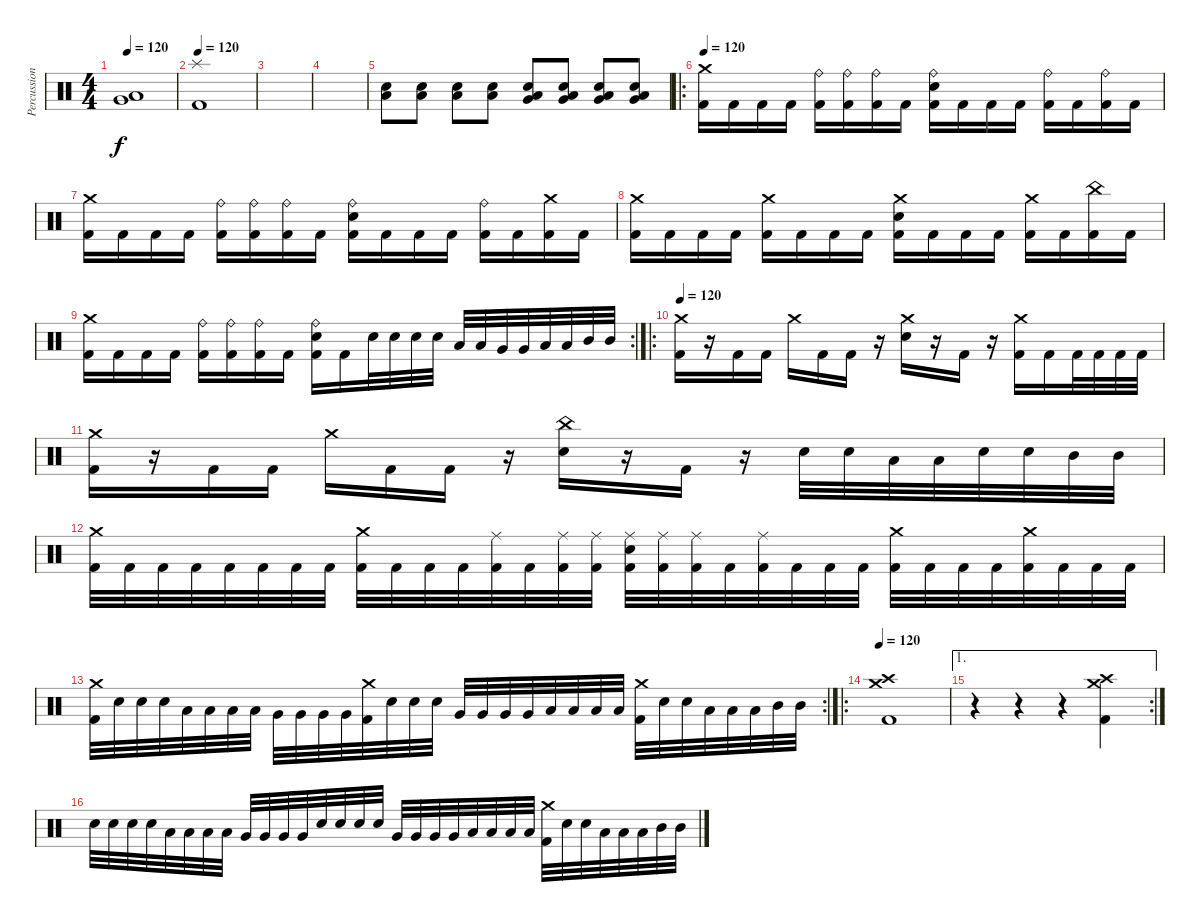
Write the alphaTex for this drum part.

\track ("Percussion" "Percussion") {instrument percussion}
\staff {score}
\articulation defaults
\ts (4 4)
\tempo 120
\clef neutral
\ks c
("Very Low Tom (hit)" "Low Floor Tom (hit)").1{dy f} |
\tempo 120
("Kick (hit) 2" "Splash (hit)").1 |
|
|
("Electric Snare (hit)" "Low Floor Tom (hit)").8 ("Electric Snare (hit)" "Low Floor Tom (hit)").8 ("Electric Snare (hit)" "Low Floor Tom (hit)").8 ("Electric Snare (hit)" "Low Floor Tom (hit)").8 ("Electric Snare (hit)" "Low Floor Tom (hit)" "Very Low Tom (hit)").8 ("Electric Snare (hit)" "Low Floor Tom (hit)" "Very Low Tom (hit)").8 ("Electric Snare (hit)" "Low Floor Tom (hit)" "Very Low Tom (hit)").8 ("Electric Snare (hit)" "Low Floor Tom (hit)" "Very Low Tom (hit)").8 |
\ro
\tempo 120
("Kick (hit) 2" "Crash medium (hit)").16 "Kick (hit) 2".16 "Kick (hit) 2".16 "Kick (hit) 2".16 ("Kick (hit) 2" "Ride (bell)").16 ("Kick (hit) 2" "Ride (bell)").16 ("Kick (hit) 2" "Ride (bell)").16 "Kick (hit) 2".16 ("Kick (hit) 2" "Electric Snare (hit)" "Ride (bell)").16 "Kick (hit) 2".16 "Kick (hit) 2".16 "Kick (hit) 2".16 ("Kick (hit) 2" "Ride (bell)").16 "Kick (hit) 2".16 ("Kick (hit) 2" "Ride (bell)").16 "Kick (hit) 2".16 |
("Kick (hit) 2" "Crash medium (hit)").16 "Kick (hit) 2".16 "Kick (hit) 2".16 "Kick (hit) 2".16 ("Kick (hit) 2" "Ride (bell)").16 ("Kick (hit) 2" "Ride (bell)").16 ("Kick (hit) 2" "Ride (bell)").16 "Kick (hit) 2".16 ("Kick (hit) 2" "Electric Snare (hit)" "Ride (bell)").16 "Kick (hit) 2".16 "Kick (hit) 2".16 "Kick (hit) 2".16 ("Kick (hit) 2" "Ride (bell)").16 "Kick (hit) 2".16 ("Kick (hit) 2" "Crash medium (hit)").16 "Kick (hit) 2".16 |
("Kick (hit) 2" "Crash medium (hit)").16 "Kick (hit) 2".16 "Kick (hit) 2".16 "Kick (hit) 2".16 ("Kick (hit) 2" "Crash medium (hit)").16 "Kick (hit) 2".16 "Kick (hit) 2".16 "Kick (hit) 2".16 ("Kick (hit) 2" "Electric Snare (hit)" "Crash medium (hit)").16 "Kick (hit) 2".16 "Kick (hit) 2".16 "Kick (hit) 2".16 ("Kick (hit) 2" "Crash medium (hit)").16 "Kick (hit) 2".16 ("Kick (hit) 2" "China (hit)").16 "Kick (hit) 2".16 |
\rc 2
("Kick (hit) 2" "Crash medium (hit)").16 "Kick (hit) 2".16 "Kick (hit) 2".16 "Kick (hit) 2".16 ("Kick (hit) 2" "Ride (bell)").16 ("Kick (hit) 2" "Ride (bell)").16 ("Kick (hit) 2" "Ride (bell)").16 "Kick (hit) 2".16 ("Kick (hit) 2" "Electric Snare (hit)" "Ride (bell)").16 "Kick (hit) 2".16 "Electric Snare (hit)".32 "Electric Snare (hit)".32 "Electric Snare (hit)".32 "Electric Snare (hit)".32 "Low Floor Tom (hit)".32 "Low Floor Tom (hit)".32 "Very Low Tom (hit)".32 "Very Low Tom (hit)".32 "Low Tom (hit)".32 "Low Tom (hit)".32 "Mid Tom (hit)".32 "Mid Tom (hit)".32 |
\ro
\tempo 120
("Kick (hit) 2" "Crash medium (hit)").16 r.16 "Kick (hit) 2".16 "Kick (hit) 2".16 "Crash medium (hit)".16 "Kick (hit) 2".16 "Kick (hit) 2".16 r.16 ("Electric Snare (hit)" "Crash medium (hit)").16 r.16 "Kick (hit) 2".16 r.16 ("Kick (hit) 2" "Crash medium (hit)").16 "Kick (hit) 2".16 "Kick (hit) 2".32 "Kick (hit) 2".32 "Kick (hit) 2".32 "Kick (hit) 2".32 |
("Kick (hit) 2" "Crash medium (hit)").16 r.16 "Kick (hit) 2".16 "Kick (hit) 2".16 "Crash medium (hit)".16 "Kick (hit) 2".16 "Kick (hit) 2".16 r.16 ("Electric Snare (hit)" "China (hit)").16 r.16 "Kick (hit) 2".16 r.16 "Electric Snare (hit)".32 "Electric Snare (hit)".32 "Low Tom (hit)".32 "Low Tom (hit)".32 "Electric Snare (hit)".32 "Electric Snare (hit)".32 "Mid Tom (hit)".32 "Mid Tom (hit)".32 |
("Kick (hit) 2" "Crash medium (hit)").32 "Kick (hit) 2".32 "Kick (hit) 2".32 "Kick (hit) 2".32 "Kick (hit) 2".32 "Kick (hit) 2".32 "Kick (hit) 2".32 "Kick (hit) 2".32 ("Kick (hit) 2" "Crash medium (hit)").32 "Kick (hit) 2".32 "Kick (hit) 2".32 "Kick (hit) 2".32 ("Kick (hit) 2" "Ride (middle)").32 "Kick (hit) 2".32 ("Kick (hit) 2" "Ride (middle)").32 ("Kick (hit) 2" "Ride (middle)").32 ("Kick (hit) 2" "Electric Snare (hit)" "Ride (middle)").32 ("Kick (hit) 2" "Ride (middle)").32 ("Kick (hit) 2" "Ride (middle)").32 "Kick (hit) 2".32 ("Kick (hit) 2" "Ride (middle)").32 "Kick (hit) 2".32 "Kick (hit) 2".32 "Kick (hit) 2".32 ("Kick (hit) 2" "Crash medium (hit)").32 "Kick (hit) 2".32 "Kick (hit) 2".32 "Kick (hit) 2".32 ("Kick (hit) 2" "Crash medium (hit)").32 "Kick (hit) 2".32 "Kick (hit) 2".32 "Kick (hit) 2".32 |
\rc 2
("Kick (hit) 2" "Crash medium (hit)").32 "Electric Snare (hit)".32 "Electric Snare (hit)".32 "Electric Snare (hit)".32 "Low Floor Tom (hit)".32 "Low Floor Tom (hit)".32 "Low Floor Tom (hit)".32 "Low Floor Tom (hit)".32 "Very Low Tom (hit)".32 "Very Low Tom (hit)".32 "Very Low Tom (hit)".32 "Very Low Tom (hit)".32 ("Kick (hit) 2" "Crash medium (hit)").32 "Electric Snare (hit)".32 "Electric Snare (hit)".32 "Electric Snare (hit)".32 "Very Low Tom (hit)".32 "Very Low Tom (hit)".32 "Very Low Tom (hit)".32 "Very Low Tom (hit)".32 "Low Tom (hit)".32 "Low Tom (hit)".32 "Low Tom (hit)".32 "Low Tom (hit)".32 ("Kick (hit) 2" "Crash medium (hit)").32 "Electric Snare (hit)".32 "Electric Snare (hit)".32 "Low Tom (hit)".32 "Low Tom (hit)".32 "Low Tom (hit)".32 "Mid Tom (hit)".32 "Mid Tom (hit)".32 |
\ro
\tempo 120
("Kick (hit) 2" "Crash high (hit)" "Crash medium (hit)").1 |
\ae 1
\rc 2
r.4 r.4 r.4 ("Kick (hit) 2" "Crash high (hit)" "Crash medium (hit)").4 |
"Electric Snare (hit)".32 "Electric Snare (hit)".32 "Electric Snare (hit)".32 "Electric Snare (hit)".32 "Low Floor Tom (hit)".32 "Low Floor Tom (hit)".32 "Low Floor Tom (hit)".32 "Low Floor Tom (hit)".32 "Very Low Tom (hit)".32 "Very Low Tom (hit)".32 "Very Low Tom (hit)".32 "Very Low Tom (hit)".32 "Electric Snare (hit)".32 "Electric Snare (hit)".32 "Electric Snare (hit)".32 "Electric Snare (hit)".32 "Very Low Tom (hit)".32 "Very Low Tom (hit)".32 "Very Low Tom (hit)".32 "Very Low Tom (hit)".32 "Low Tom (hit)".32 "Low Tom (hit)".32 "Low Tom (hit)".32 "Low Tom (hit)".32 ("Kick (hit) 2" "Crash medium (hit)").32 "Electric Snare (hit)".32 "Electric Snare (hit)".32 "Low Tom (hit)".32 "Low Tom (hit)".32 "Low Tom (hit)".32 "Mid Tom (hit)".32 "Mid Tom (hit)".32
